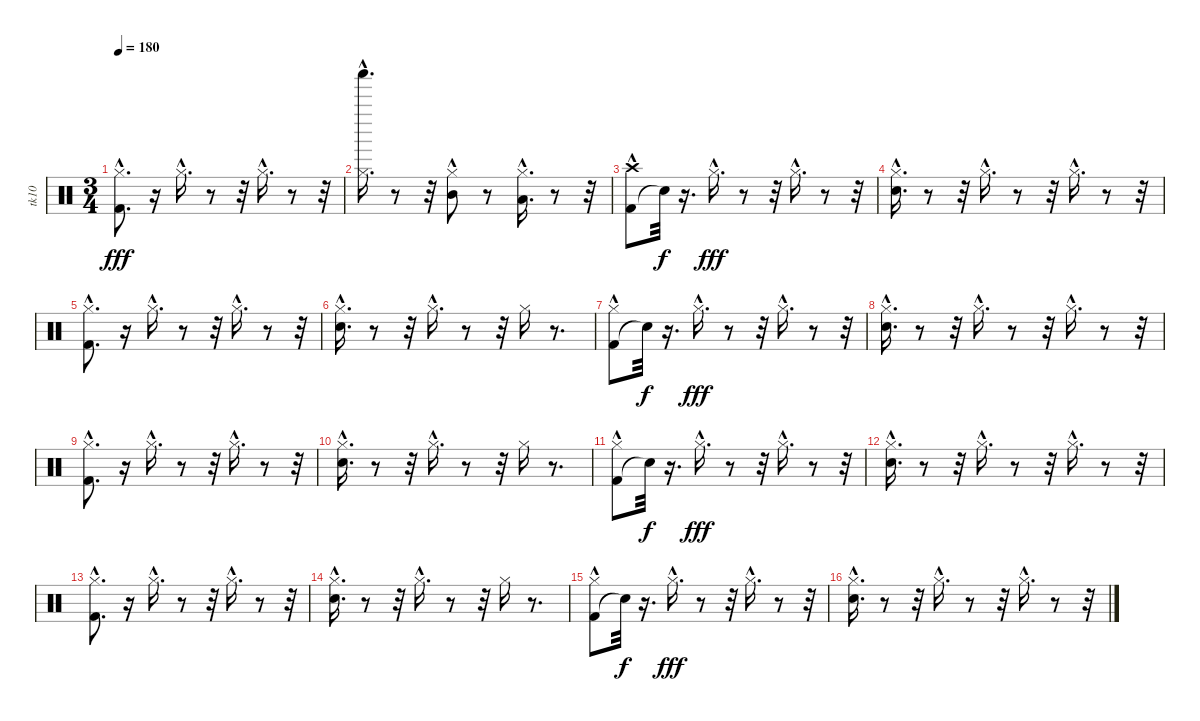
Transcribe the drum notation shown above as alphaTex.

\track ("tk10" "tk10") {instrument percussion}
\staff {score}
\articulation defaults
\ts (3 4)
\tempo 180
\clef neutral
\ks c
("Kick (hit) 2"{hac} "Hi-Hat (closed)"{hac}).8{d dy fff} r.16 "Hi-Hat (closed)"{hac}.16{d} r.8 r.32 "Hi-Hat (closed)"{hac}.16{d} r.8 r.32 |
("Shaker (hit)"{hac} "Hi-Hat (closed)"{hac}).16{d} r.8 r.32 ("Mid Tom (hit)" "Hi-Hat (closed)"{hac}).8 r.8 ("Low Tom (hit)"{hac} "Hi-Hat (closed)").16{d} r.8 r.32 |
("Kick (hit) 2" "Crash high (hit)"{hac}).8 "Snare (hit)"{t}.32{dy f} r.16{d} "Hi-Hat (closed)"{hac}.16{d dy fff} r.8 r.32 "Hi-Hat (closed)"{hac}.16{d} r.8 r.32 |
("Snare (hit) 2"{hac} "Hi-Hat (closed)"{hac}).16{d} r.8 r.32 "Hi-Hat (closed)"{hac}.16{d} r.8 r.32 "Hi-Hat (closed)"{hac}.16{d} r.8 r.32 |
("Kick (hit) 2"{hac} "Hi-Hat (closed)"{hac}).8{d} r.16 "Hi-Hat (closed)"{hac}.16{d} r.8 r.32 "Hi-Hat (closed)"{hac}.16{d} r.8 r.32 |
("Snare (hit) 2"{hac} "Hi-Hat (closed)"{hac}).16{d} r.8 r.32 "Hi-Hat (closed)"{hac}.16{d} r.8 r.32 "Hi-Hat (closed)".16 r.8{d} |
("Kick (hit) 2" "Hi-Hat (closed)"{hac}).8 "Snare (hit)"{t}.32{dy f} r.16{d} "Hi-Hat (closed)"{hac}.16{d dy fff} r.8 r.32 "Hi-Hat (closed)"{hac}.16{d} r.8 r.32 |
("Snare (hit) 2"{hac} "Hi-Hat (closed)"{hac}).16{d} r.8 r.32 "Hi-Hat (closed)"{hac}.16{d} r.8 r.32 "Hi-Hat (closed)"{hac}.16{d} r.8 r.32 |
("Kick (hit) 2"{hac} "Hi-Hat (closed)"{hac}).8{d} r.16 "Hi-Hat (closed)"{hac}.16{d} r.8 r.32 "Hi-Hat (closed)"{hac}.16{d} r.8 r.32 |
("Snare (hit) 2"{hac} "Hi-Hat (closed)"{hac}).16{d} r.8 r.32 "Hi-Hat (closed)"{hac}.16{d} r.8 r.32 "Hi-Hat (closed)".16 r.8{d} |
("Kick (hit) 2" "Hi-Hat (closed)"{hac}).8 "Snare (hit)"{t}.32{dy f} r.16{d} "Hi-Hat (closed)"{hac}.16{d dy fff} r.8 r.32 "Hi-Hat (closed)"{hac}.16{d} r.8 r.32 |
("Snare (hit) 2"{hac} "Hi-Hat (closed)"{hac}).16{d} r.8 r.32 "Hi-Hat (closed)"{hac}.16{d} r.8 r.32 "Hi-Hat (closed)"{hac}.16{d} r.8 r.32 |
("Kick (hit) 2"{hac} "Hi-Hat (closed)"{hac}).8{d} r.16 "Hi-Hat (closed)"{hac}.16{d} r.8 r.32 "Hi-Hat (closed)"{hac}.16{d} r.8 r.32 |
("Snare (hit) 2"{hac} "Hi-Hat (closed)"{hac}).16{d} r.8 r.32 "Hi-Hat (closed)"{hac}.16{d} r.8 r.32 "Hi-Hat (closed)".16 r.8{d} |
("Kick (hit) 2" "Hi-Hat (closed)"{hac}).8 "Snare (hit)"{t}.32{dy f} r.16{d} "Hi-Hat (closed)"{hac}.16{d dy fff} r.8 r.32 "Hi-Hat (closed)"{hac}.16{d} r.8 r.32 |
("Snare (hit) 2"{hac} "Hi-Hat (closed)"{hac}).16{d} r.8 r.32 "Hi-Hat (closed)"{hac}.16{d} r.8 r.32 "Hi-Hat (closed)"{hac}.16{d} r.8 r.32
